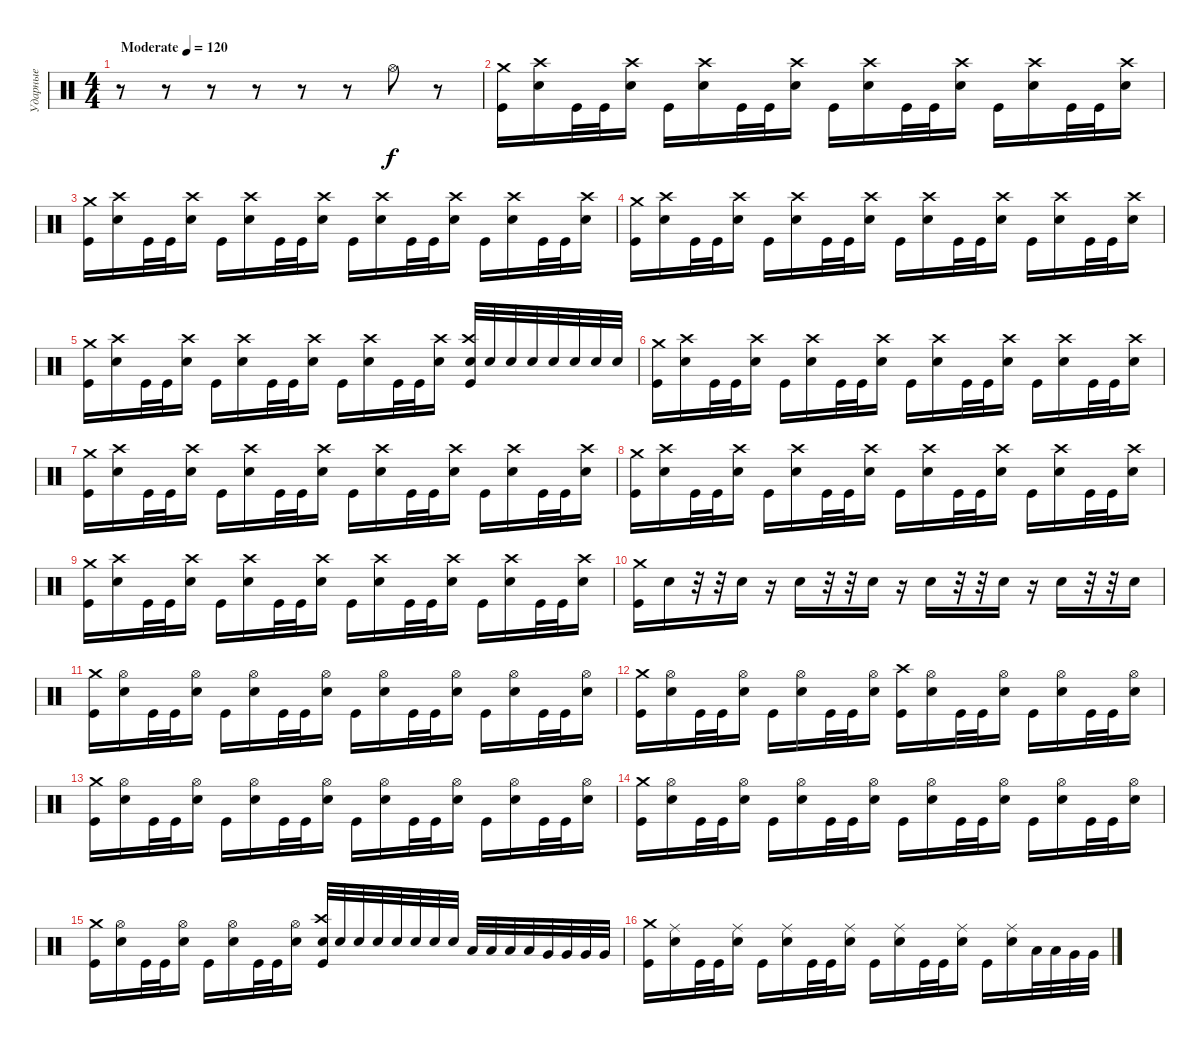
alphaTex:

\track ("Ударные" "Ударные") {solo instrument percussion}
\staff {score}
\articulation defaults
\ts (4 4)
\tempo (120 "Moderate")
\clef neutral
\ks c
r.8{dy f} r.8 r.8 r.8 r.8 r.8 "Hi-Hat (open)".8 r.8 |
("Crash medium (hit)" "Kick (hit)").16 ("Crash high (hit)" "Snare (hit) 2").16 "Kick (hit)".32 "Kick (hit)".32 ("Crash high (hit)" "Snare (hit) 2").16 "Kick (hit)".16 ("Crash high (hit)" "Snare (hit) 2").16 "Kick (hit)".32 "Kick (hit)".32 ("Crash high (hit)" "Snare (hit) 2").16 "Kick (hit)".16 ("Crash high (hit)" "Snare (hit) 2").16 "Kick (hit)".32 "Kick (hit)".32 ("Crash high (hit)" "Snare (hit) 2").16 "Kick (hit)".16 ("Crash high (hit)" "Snare (hit) 2").16 "Kick (hit)".32 "Kick (hit)".32 ("Crash high (hit)" "Snare (hit) 2").16 |
("Crash medium (hit)" "Kick (hit)").16 ("Crash high (hit)" "Snare (hit) 2").16 "Kick (hit)".32 "Kick (hit)".32 ("Crash high (hit)" "Snare (hit) 2").16 "Kick (hit)".16 ("Crash high (hit)" "Snare (hit) 2").16 "Kick (hit)".32 "Kick (hit)".32 ("Crash high (hit)" "Snare (hit) 2").16 "Kick (hit)".16 ("Crash high (hit)" "Snare (hit) 2").16 "Kick (hit)".32 "Kick (hit)".32 ("Crash high (hit)" "Snare (hit) 2").16 "Kick (hit)".16 ("Crash high (hit)" "Snare (hit) 2").16 "Kick (hit)".32 "Kick (hit)".32 ("Crash high (hit)" "Snare (hit) 2").16 |
("Crash medium (hit)" "Kick (hit)").16 ("Crash high (hit)" "Snare (hit) 2").16 "Kick (hit)".32 "Kick (hit)".32 ("Crash high (hit)" "Snare (hit) 2").16 "Kick (hit)".16 ("Crash high (hit)" "Snare (hit) 2").16 "Kick (hit)".32 "Kick (hit)".32 ("Crash high (hit)" "Snare (hit) 2").16 "Kick (hit)".16 ("Crash high (hit)" "Snare (hit) 2").16 "Kick (hit)".32 "Kick (hit)".32 ("Crash high (hit)" "Snare (hit) 2").16 "Kick (hit)".16 ("Crash high (hit)" "Snare (hit) 2").16 "Kick (hit)".32 "Kick (hit)".32 ("Crash high (hit)" "Snare (hit) 2").16 |
("Crash medium (hit)" "Kick (hit)").16 ("Crash high (hit)" "Snare (hit) 2").16 "Kick (hit)".32 "Kick (hit)".32 ("Crash high (hit)" "Snare (hit) 2").16 "Kick (hit)".16 ("Crash high (hit)" "Snare (hit) 2").16 "Kick (hit)".32 "Kick (hit)".32 ("Crash high (hit)" "Snare (hit) 2").16 "Kick (hit)".16 ("Crash high (hit)" "Snare (hit) 2").16 "Kick (hit)".32 "Kick (hit)".32 ("Crash high (hit)" "Snare (hit) 2").16 ("Crash high (hit)" "Kick (hit)" "Snare (hit) 2").32 "Snare (hit) 2".32 "Snare (hit) 2".32 "Snare (hit) 2".32 "Snare (hit) 2".32 "Snare (hit) 2".32 "Snare (hit) 2".32 "Snare (hit) 2".32 |
("Crash medium (hit)" "Kick (hit)").16 ("Crash high (hit)" "Snare (hit) 2").16 "Kick (hit)".32 "Kick (hit)".32 ("Crash high (hit)" "Snare (hit) 2").16 "Kick (hit)".16 ("Crash high (hit)" "Snare (hit) 2").16 "Kick (hit)".32 "Kick (hit)".32 ("Crash high (hit)" "Snare (hit) 2").16 "Kick (hit)".16 ("Crash high (hit)" "Snare (hit) 2").16 "Kick (hit)".32 "Kick (hit)".32 ("Crash high (hit)" "Snare (hit) 2").16 "Kick (hit)".16 ("Crash high (hit)" "Snare (hit) 2").16 "Kick (hit)".32 "Kick (hit)".32 ("Crash high (hit)" "Snare (hit) 2").16 |
("Crash medium (hit)" "Kick (hit)").16 ("Crash high (hit)" "Snare (hit) 2").16 "Kick (hit)".32 "Kick (hit)".32 ("Crash high (hit)" "Snare (hit) 2").16 "Kick (hit)".16 ("Crash high (hit)" "Snare (hit) 2").16 "Kick (hit)".32 "Kick (hit)".32 ("Crash high (hit)" "Snare (hit) 2").16 "Kick (hit)".16 ("Crash high (hit)" "Snare (hit) 2").16 "Kick (hit)".32 "Kick (hit)".32 ("Crash high (hit)" "Snare (hit) 2").16 "Kick (hit)".16 ("Crash high (hit)" "Snare (hit) 2").16 "Kick (hit)".32 "Kick (hit)".32 ("Crash high (hit)" "Snare (hit) 2").16 |
("Crash medium (hit)" "Kick (hit)").16 ("Crash high (hit)" "Snare (hit) 2").16 "Kick (hit)".32 "Kick (hit)".32 ("Crash high (hit)" "Snare (hit) 2").16 "Kick (hit)".16 ("Crash high (hit)" "Snare (hit) 2").16 "Kick (hit)".32 "Kick (hit)".32 ("Crash high (hit)" "Snare (hit) 2").16 "Kick (hit)".16 ("Crash high (hit)" "Snare (hit) 2").16 "Kick (hit)".32 "Kick (hit)".32 ("Crash high (hit)" "Snare (hit) 2").16 "Kick (hit)".16 ("Crash high (hit)" "Snare (hit) 2").16 "Kick (hit)".32 "Kick (hit)".32 ("Crash high (hit)" "Snare (hit) 2").16 |
("Crash medium (hit)" "Kick (hit)").16 ("Crash high (hit)" "Snare (hit) 2").16 "Kick (hit)".32 "Kick (hit)".32 ("Crash high (hit)" "Snare (hit) 2").16 "Kick (hit)".16 ("Crash high (hit)" "Snare (hit) 2").16 "Kick (hit)".32 "Kick (hit)".32 ("Crash high (hit)" "Snare (hit) 2").16 "Kick (hit)".16 ("Crash high (hit)" "Snare (hit) 2").16 "Kick (hit)".32 "Kick (hit)".32 ("Crash high (hit)" "Snare (hit) 2").16 "Kick (hit)".16 ("Crash high (hit)" "Snare (hit) 2").16 "Kick (hit)".32 "Kick (hit)".32 ("Crash high (hit)" "Snare (hit) 2").16 |
("Crash medium (hit)" "Kick (hit)").16 "Snare (hit) 2".16 r.32 r.32 "Snare (hit) 2".16 r.16 "Snare (hit) 2".16 r.32 r.32 "Snare (hit) 2".16 r.16 "Snare (hit) 2".16 r.32 r.32 "Snare (hit) 2".16 r.16 "Snare (hit) 2".16 r.32 r.32 "Snare (hit) 2".16 |
("Crash medium (hit)" "Kick (hit)").16 ("Hi-Hat (open)" "Snare (hit) 2").16 "Kick (hit)".32 "Kick (hit)".32 ("Hi-Hat (open)" "Snare (hit) 2").16 "Kick (hit)".16 ("Hi-Hat (open)" "Snare (hit) 2").16 "Kick (hit)".32 "Kick (hit)".32 ("Hi-Hat (open)" "Snare (hit) 2").16 "Kick (hit)".16 ("Hi-Hat (open)" "Snare (hit) 2").16 "Kick (hit)".32 "Kick (hit)".32 ("Hi-Hat (open)" "Snare (hit) 2").16 "Kick (hit)".16 ("Hi-Hat (open)" "Snare (hit) 2").16 "Kick (hit)".32 "Kick (hit)".32 ("Hi-Hat (open)" "Snare (hit) 2").16 |
("Crash medium (hit)" "Kick (hit)").16 ("Hi-Hat (open)" "Snare (hit) 2").16 "Kick (hit)".32 "Kick (hit)".32 ("Hi-Hat (open)" "Snare (hit) 2").16 "Kick (hit)".16 ("Hi-Hat (open)" "Snare (hit) 2").16 "Kick (hit)".32 "Kick (hit)".32 ("Hi-Hat (open)" "Snare (hit) 2").16 ("Crash high (hit)" "Kick (hit)").16 ("Hi-Hat (open)" "Snare (hit) 2").16 "Kick (hit)".32 "Kick (hit)".32 ("Hi-Hat (open)" "Snare (hit) 2").16 "Kick (hit)".16 ("Hi-Hat (open)" "Snare (hit) 2").16 "Kick (hit)".32 "Kick (hit)".32 ("Hi-Hat (open)" "Snare (hit) 2").16 |
("Crash medium (hit)" "Kick (hit)").16 ("Hi-Hat (open)" "Snare (hit) 2").16 "Kick (hit)".32 "Kick (hit)".32 ("Hi-Hat (open)" "Snare (hit) 2").16 "Kick (hit)".16 ("Hi-Hat (open)" "Snare (hit) 2").16 "Kick (hit)".32 "Kick (hit)".32 ("Hi-Hat (open)" "Snare (hit) 2").16 "Kick (hit)".16 ("Hi-Hat (open)" "Snare (hit) 2").16 "Kick (hit)".32 "Kick (hit)".32 ("Hi-Hat (open)" "Snare (hit) 2").16 "Kick (hit)".16 ("Hi-Hat (open)" "Snare (hit) 2").16 "Kick (hit)".32 "Kick (hit)".32 ("Hi-Hat (open)" "Snare (hit) 2").16 |
("Crash medium (hit)" "Kick (hit)").16 ("Hi-Hat (open)" "Snare (hit) 2").16 "Kick (hit)".32 "Kick (hit)".32 ("Hi-Hat (open)" "Snare (hit) 2").16 "Kick (hit)".16 ("Hi-Hat (open)" "Snare (hit) 2").16 "Kick (hit)".32 "Kick (hit)".32 ("Hi-Hat (open)" "Snare (hit) 2").16 "Kick (hit)".16 ("Hi-Hat (open)" "Snare (hit) 2").16 "Kick (hit)".32 "Kick (hit)".32 ("Hi-Hat (open)" "Snare (hit) 2").16 "Kick (hit)".16 ("Hi-Hat (open)" "Snare (hit) 2").16 "Kick (hit)".32 "Kick (hit)".32 ("Hi-Hat (open)" "Snare (hit) 2").16 |
("Crash medium (hit)" "Kick (hit)").16 ("Hi-Hat (open)" "Snare (hit) 2").16 "Kick (hit)".32 "Kick (hit)".32 ("Hi-Hat (open)" "Snare (hit) 2").16 "Kick (hit)".16 ("Hi-Hat (open)" "Snare (hit) 2").16 "Kick (hit)".32 "Kick (hit)".32 ("Hi-Hat (open)" "Snare (hit) 2").16 ("Crash high (hit)" "Kick (hit)" "Snare (hit) 2").32 "Snare (hit) 2".32 "Snare (hit) 2".32 "Snare (hit) 2".32 "Snare (hit) 2".32 "Snare (hit) 2".32 "Snare (hit) 2".32 "Snare (hit) 2".32 "Low Tom (hit)".32 "Low Tom (hit)".32 "Low Tom (hit)".32 "Low Tom (hit)".32 "Very Low Tom (hit)".32 "Very Low Tom (hit)".32 "Very Low Tom (hit)".32 "Very Low Tom (hit)".32 |
("Crash medium (hit)" "Kick (hit)").16 ("Ride (middle)" "Snare (hit) 2").16 "Kick (hit)".32 "Kick (hit)".32 ("Ride (middle)" "Snare (hit) 2").16 "Kick (hit)".16 ("Ride (middle)" "Snare (hit) 2").16 "Kick (hit)".32 "Kick (hit)".32 ("Ride (middle)" "Snare (hit) 2").16 "Kick (hit)".16 ("Ride (middle)" "Snare (hit) 2").16 "Kick (hit)".32 "Kick (hit)".32 ("Ride (middle)" "Snare (hit) 2").16 "Kick (hit)".16 ("Ride (middle)" "Snare (hit) 2").16 "Low Tom (hit)".32 "Low Tom (hit)".32 "Very Low Tom (hit)".32 "Very Low Tom (hit)".32
